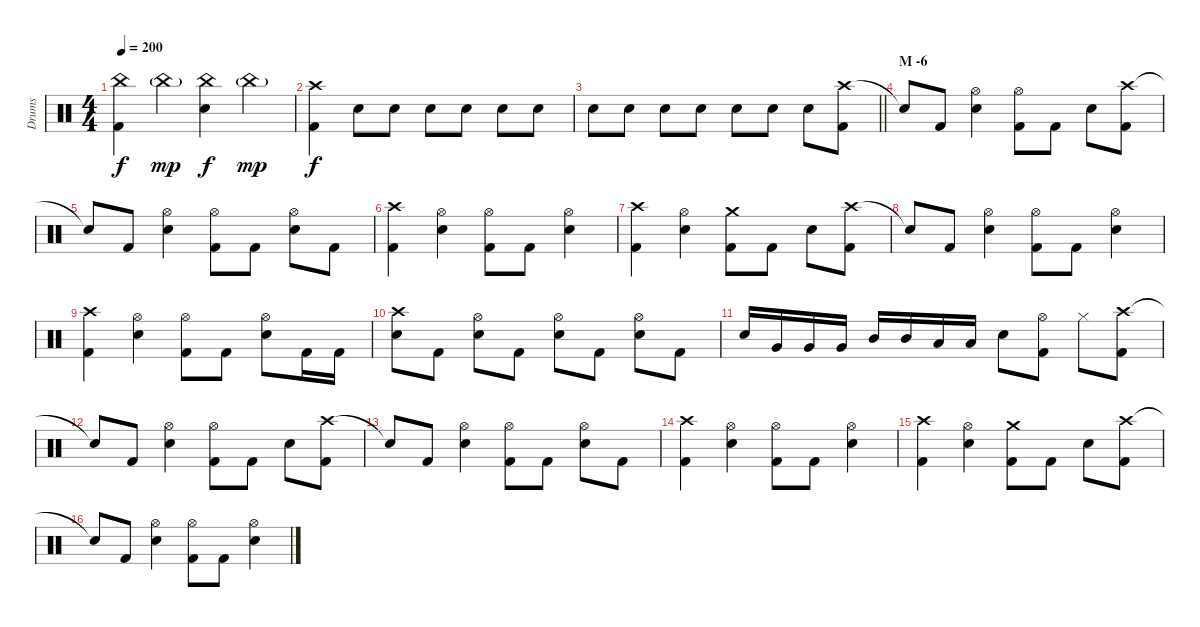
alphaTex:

\track ("Drums" "Drums") {instrument percussion}
\staff {score}
\articulation defaults
\ts (4 4)
\tempo 200
\clef neutral
\ks c
("China (hit)" "Kick (hit) 2").4{dy f} "China (hit)"{g}.4{dy mp} ("China (hit)" "Snare (hit) 2").4{dy f} "China (hit)"{g}.4{dy mp} |
("Crash high (hit)" "Kick (hit) 2").4{dy f} "Snare (hit) 2".8 "Snare (hit) 2".8 "Snare (hit) 2".8 "Snare (hit) 2".8 "Snare (hit) 2".8 "Snare (hit) 2".8 |
\barLineRight lightlight "Snare (hit) 2".8 "Snare (hit) 2".8 "Snare (hit) 2".8 "Snare (hit) 2".8 "Snare (hit) 2".8 "Snare (hit) 2".8 "Snare (hit) 2".8
("Crash high (hit)" "Kick (hit) 2").8 |
\section ("" "M -6")
"Snare (hit)"{t}.8 "Kick (hit) 2".8 ("Hi-Hat (open)" "Snare (hit) 2").4 ("Hi-Hat (open)" "Kick (hit) 2").8 "Kick (hit) 2".8 "Snare (hit) 2".8 ("Crash high (hit)" "Kick (hit) 2").8 |
"Snare (hit)"{t}.8 "Kick (hit) 2".8 ("Hi-Hat (open)" "Snare (hit) 2").4 ("Hi-Hat (open)" "Kick (hit) 2").8 "Kick (hit) 2".8 ("Hi-Hat (open)" "Snare (hit) 2").8 "Kick (hit) 2".8 |
("Crash high (hit)" "Kick (hit) 2").4 ("Hi-Hat (open)" "Snare (hit) 2").4 ("Hi-Hat (open)" "Kick (hit) 2").8 "Kick (hit) 2".8 ("Hi-Hat (open)" "Snare (hit) 2").4 |
("Crash high (hit)" "Kick (hit) 2").4 ("Hi-Hat (open)" "Snare (hit) 2").4 ("Crash medium (hit)" "Kick (hit) 2").8 "Kick (hit) 2".8 "Snare (hit) 2".8 ("Crash high (hit)" "Kick (hit) 2").8 |
"Snare (hit)"{t}.8 "Kick (hit) 2".8 ("Hi-Hat (open)" "Snare (hit) 2").4 ("Hi-Hat (open)" "Kick (hit) 2").8 "Kick (hit) 2".8 ("Hi-Hat (open)" "Snare (hit) 2").4 |
("Crash high (hit)" "Kick (hit) 2").4 ("Hi-Hat (open)" "Snare (hit) 2").4 ("Hi-Hat (open)" "Kick (hit) 2").8 "Kick (hit) 2".8 ("Hi-Hat (open)" "Snare (hit) 2").8 "Kick (hit) 2".16 "Kick (hit) 2".16 |
("Crash high (hit)" "Snare (hit) 2").8 "Kick (hit) 2".8 ("Hi-Hat (open)" "Snare (hit) 2").8 "Kick (hit) 2".8 ("Hi-Hat (open)" "Snare (hit) 2").8 "Kick (hit) 2".8 ("Hi-Hat (open)" "Snare (hit) 2").8 "Kick (hit) 2".8 |
"Snare (hit) 2".16 "Very Low Tom (hit)".16 "Very Low Tom (hit)".16 "Very Low Tom (hit)".16 "Mid Tom (hit)".16 "Mid Tom (hit)".16 "Low Tom (hit)".16 "Low Tom (hit)".16 "Snare (hit) 2".8 ("Hi-Hat (open)" "Kick (hit) 2").8 "Hi-Hat (closed)".8 ("Crash high (hit)" "Kick (hit) 2").8 |
"Snare (hit)"{t}.8 "Kick (hit) 2".8 ("Hi-Hat (open)" "Snare (hit) 2").4 ("Hi-Hat (open)" "Kick (hit) 2").8 "Kick (hit) 2".8 "Snare (hit) 2".8 ("Crash high (hit)" "Kick (hit) 2").8 |
"Snare (hit)"{t}.8 "Kick (hit) 2".8 ("Hi-Hat (open)" "Snare (hit) 2").4 ("Hi-Hat (open)" "Kick (hit) 2").8 "Kick (hit) 2".8 ("Hi-Hat (open)" "Snare (hit) 2").8 "Kick (hit) 2".8 |
("Crash high (hit)" "Kick (hit) 2").4 ("Hi-Hat (open)" "Snare (hit) 2").4 ("Hi-Hat (open)" "Kick (hit) 2").8 "Kick (hit) 2".8 ("Hi-Hat (open)" "Snare (hit) 2").4 |
("Crash high (hit)" "Kick (hit) 2").4 ("Hi-Hat (open)" "Snare (hit) 2").4 ("Crash medium (hit)" "Kick (hit) 2").8 "Kick (hit) 2".8 "Snare (hit) 2".8 ("Crash high (hit)" "Kick (hit) 2").8 |
"Snare (hit)"{t}.8 "Kick (hit) 2".8 ("Hi-Hat (open)" "Snare (hit) 2").4 ("Hi-Hat (open)" "Kick (hit) 2").8 "Kick (hit) 2".8 ("Hi-Hat (open)" "Snare (hit) 2").4
